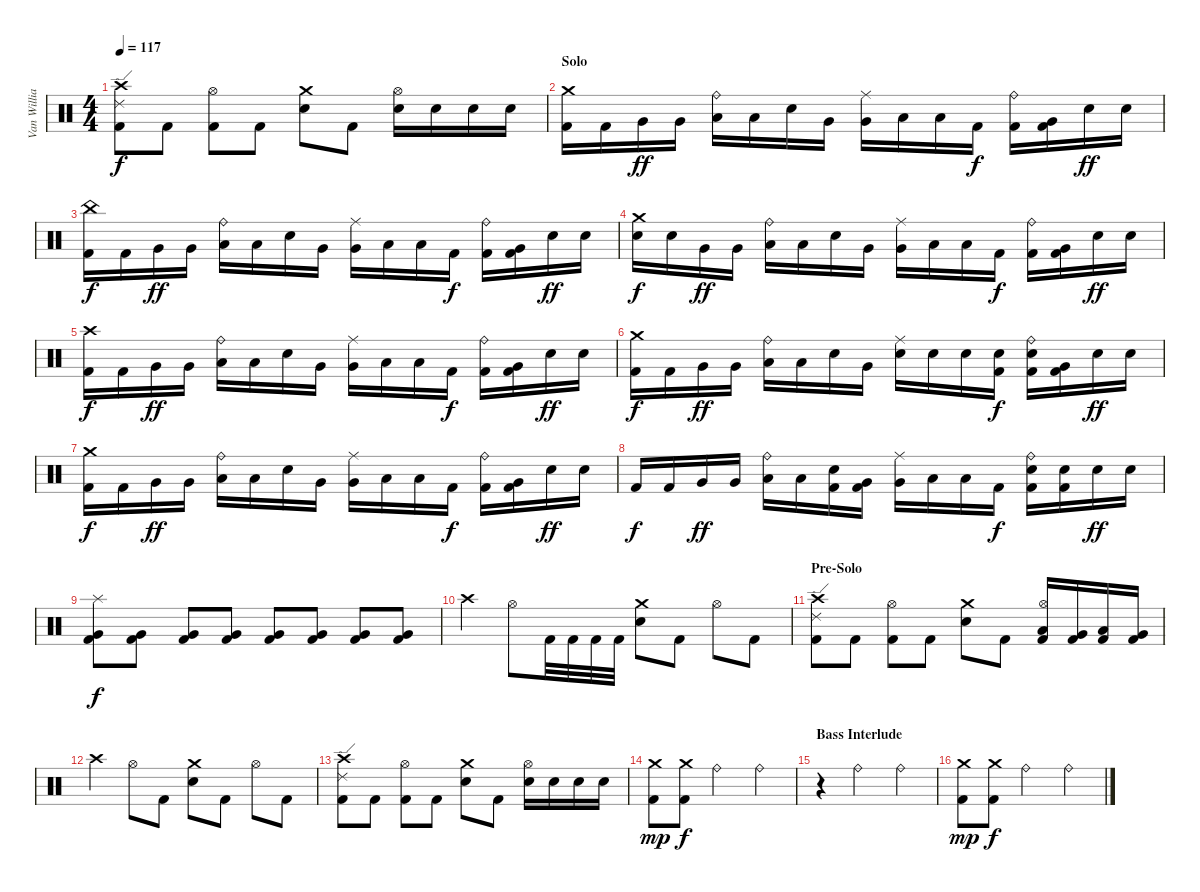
\track ("Van Williams" "Van Willia") {instrument percussion}
\staff {score}
\articulation defaults
\ts (4 4)
\tempo 117
\clef neutral
\ks c
("Crash high (hit)" "Ride (edge) 2" "Kick (hit) 2").8{dy f} "Kick (hit) 2".8 ("Hi-Hat (open)" "Kick (hit) 2").8 "Kick (hit) 2".8 ("Crash medium (hit)" "Electric Snare (hit)").8 "Kick (hit) 2".8 ("Hi-Hat (open)" "Electric Snare (hit)").16 "Electric Snare (hit)".16 "Electric Snare (hit)".16 "Electric Snare (hit)".16 |
\section ("" "Solo")
("Crash medium (hit)" "Kick (hit) 2").16 "Kick (hit) 2".16 "Very Low Tom (hit)".16{dy ff} "Very Low Tom (hit)".16 ("Ride (bell)" "Low Floor Tom (hit)").16 "Low Floor Tom (hit)".16 "Electric Snare (hit)".16 "Very Low Tom (hit)".16 ("Ride (middle)" "Very Low Tom (hit)").16 "Low Floor Tom (hit)".16 "Low Floor Tom (hit)".16 "Kick (hit) 2".16{dy f} ("Ride (bell)" "Kick (hit) 2").16 ("Very Low Tom (hit)" "Kick (hit) 2").16 "Electric Snare (hit)".16{dy ff} "Electric Snare (hit)".16 |
("China (hit)" "Kick (hit) 2").16{dy f} "Kick (hit) 2".16 "Very Low Tom (hit)".16{dy ff} "Very Low Tom (hit)".16 ("Ride (bell)" "Low Floor Tom (hit)").16 "Low Floor Tom (hit)".16 "Electric Snare (hit)".16 "Very Low Tom (hit)".16 ("Ride (middle)" "Very Low Tom (hit)").16 "Low Floor Tom (hit)".16 "Low Floor Tom (hit)".16 "Kick (hit) 2".16{dy f} ("Ride (bell)" "Kick (hit) 2").16 ("Very Low Tom (hit)" "Kick (hit) 2").16 "Electric Snare (hit)".16{dy ff} "Electric Snare (hit)".16 |
("Crash medium (hit)" "Electric Snare (hit)").16{dy f} "Electric Snare (hit)".16 "Very Low Tom (hit)".16{dy ff} "Very Low Tom (hit)".16 ("Ride (bell)" "Low Floor Tom (hit)").16 "Low Floor Tom (hit)".16 "Electric Snare (hit)".16 "Very Low Tom (hit)".16 ("Ride (middle)" "Very Low Tom (hit)").16 "Low Floor Tom (hit)".16 "Low Floor Tom (hit)".16 "Kick (hit) 2".16{dy f} ("Ride (bell)" "Kick (hit) 2").16 ("Very Low Tom (hit)" "Kick (hit) 2").16 "Electric Snare (hit)".16{dy ff} "Electric Snare (hit)".16 |
("Crash high (hit)" "Kick (hit) 2").16{dy f} "Kick (hit) 2".16 "Very Low Tom (hit)".16{dy ff} "Very Low Tom (hit)".16 ("Ride (bell)" "Low Floor Tom (hit)").16 "Low Floor Tom (hit)".16 "Electric Snare (hit)".16 "Very Low Tom (hit)".16 ("Ride (middle)" "Very Low Tom (hit)").16 "Low Floor Tom (hit)".16 "Low Floor Tom (hit)".16 "Kick (hit) 2".16{dy f} ("Ride (bell)" "Kick (hit) 2").16 ("Very Low Tom (hit)" "Kick (hit) 2").16 "Electric Snare (hit)".16{dy ff} "Electric Snare (hit)".16 |
("Crash medium (hit)" "Kick (hit) 2").16{dy f} "Kick (hit) 2".16 "Very Low Tom (hit)".16{dy ff} "Very Low Tom (hit)".16 ("Ride (bell)" "Low Floor Tom (hit)").16 "Low Floor Tom (hit)".16 "Electric Snare (hit)".16 "Very Low Tom (hit)".16 ("Ride (middle)" "Electric Snare (hit)").16 "Electric Snare (hit)".16 "Electric Snare (hit)".16 ("Electric Snare (hit)" "Kick (hit) 2").16{dy f} ("Ride (bell)" "Electric Snare (hit)" "Kick (hit) 2").16 ("Very Low Tom (hit)" "Kick (hit) 2").16 "Electric Snare (hit)".16{dy ff} "Electric Snare (hit)".16 |
("Crash medium (hit)" "Kick (hit) 2").16{dy f} "Kick (hit) 2".16 "Very Low Tom (hit)".16{dy ff} "Very Low Tom (hit)".16 ("Ride (bell)" "Low Floor Tom (hit)").16 "Low Floor Tom (hit)".16 "Electric Snare (hit)".16 "Very Low Tom (hit)".16 ("Ride (middle)" "Very Low Tom (hit)").16 "Low Floor Tom (hit)".16 "Low Floor Tom (hit)".16 "Kick (hit) 2".16{dy f} ("Ride (bell)" "Kick (hit) 2").16 ("Very Low Tom (hit)" "Kick (hit) 2").16 "Electric Snare (hit)".16{dy ff} "Electric Snare (hit)".16 |
"Kick (hit) 2".16{dy f} "Kick (hit) 2".16 "Very Low Tom (hit)".16{dy ff} "Very Low Tom (hit)".16 ("Ride (bell)" "Low Floor Tom (hit)").16 "Low Floor Tom (hit)".16 ("Electric Snare (hit)" "Kick (hit) 2").16 ("Very Low Tom (hit)" "Kick (hit) 2").16 ("Ride (middle)" "Very Low Tom (hit)").16 "Low Floor Tom (hit)".16 "Low Floor Tom (hit)".16 "Kick (hit) 2".16{dy f} ("Ride (bell)" "Electric Snare (hit)" "Kick (hit) 2").16 ("Electric Snare (hit)" "Kick (hit) 2").16 "Electric Snare (hit)".16{dy ff} "Electric Snare (hit)".16 |
("Splash (hit)" "Very Low Tom (hit)" "Kick (hit) 2").8{dy f} ("Very Low Tom (hit)" "Kick (hit) 2").8 ("Very Low Tom (hit)" "Kick (hit) 2").8 ("Very Low Tom (hit)" "Kick (hit) 2").8 ("Very Low Tom (hit)" "Kick (hit) 2").8 ("Very Low Tom (hit)" "Kick (hit) 2").8 ("Very Low Tom (hit)" "Kick (hit) 2").8 ("Very Low Tom (hit)" "Kick (hit) 2").8 |
"Crash high (hit)".4 "Hi-Hat (open)".8 "Kick (hit) 2".32 "Kick (hit) 2".32 "Kick (hit) 2".32 "Kick (hit) 2".32 ("Crash medium (hit)" "Electric Snare (hit)").8 "Kick (hit) 2".8 "Hi-Hat (open)".8 "Kick (hit) 2".8 |
\section ("" "Pre-Solo")
("Crash high (hit)" "Ride (edge) 2" "Kick (hit) 2").8 "Kick (hit) 2".8 ("Hi-Hat (open)" "Kick (hit) 2").8 "Kick (hit) 2".8 ("Crash medium (hit)" "Electric Snare (hit)").8 "Kick (hit) 2".8 ("Hi-Hat (open)" "Low Floor Tom (hit)" "Kick (hit) 2").16 ("Very Low Tom (hit)" "Kick (hit) 2").16 ("Low Floor Tom (hit)" "Kick (hit) 2").16 ("Very Low Tom (hit)" "Kick (hit) 2").16 |
"Crash high (hit)".4 "Hi-Hat (open)".8 "Kick (hit) 2".8 ("Crash medium (hit)" "Electric Snare (hit)").8 "Kick (hit) 2".8 "Hi-Hat (open)".8 "Kick (hit) 2".8 |
("Crash high (hit)" "Ride (edge) 2" "Kick (hit) 2").8 "Kick (hit) 2".8 ("Hi-Hat (open)" "Kick (hit) 2").8 "Kick (hit) 2".8 ("Crash medium (hit)" "Electric Snare (hit)").8 "Kick (hit) 2".8 ("Hi-Hat (open)" "Electric Snare (hit)").16 "Electric Snare (hit)".16 "Electric Snare (hit)".16 "Electric Snare (hit)".16 |
("Crash medium (hit)" "Kick (hit) 2").8{dy mp} ("Crash medium (hit)" "Kick (hit) 2").8{dy f} "Ride (bell)".2 "Ride (bell)".4 |
\section ("" "Bass Interlude")
r.4 "Ride (bell)".2 "Ride (bell)".4 |
("Crash medium (hit)" "Kick (hit) 2").8{dy mp} ("Crash medium (hit)" "Kick (hit) 2").8{dy f} "Ride (bell)".2 "Ride (bell)".4
